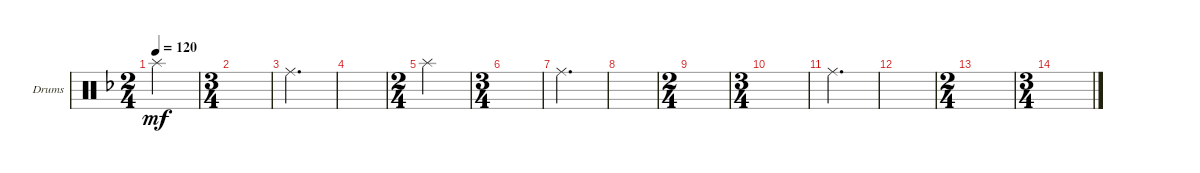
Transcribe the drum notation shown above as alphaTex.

\defaultSystemsLayout 4
\bracketExtendMode groupsimilarinstruments
\firstSystemTrackNameOrientation horizontal
\otherSystemsTrackNameOrientation horizontal
\track ("Drumkit" "Drums") {instrument percussion}
\staff {score}
\articulation defaults
\ts (2 4)
\tempo 120
\clef neutral
\ks f "Splash (hit)".2{dy mf}
|
\ts (3 4)
|
"Ride (middle)".2{d} |
|
\ts (2 4)
"Splash (hit)".2 |
\ts (3 4)
|
"Ride (middle)".2{d} |
|
\ts (2 4)
|
\ts (3 4)
|
"Ride (middle)".2{d} |
|
\ts (2 4)
|
\ts (3 4)
